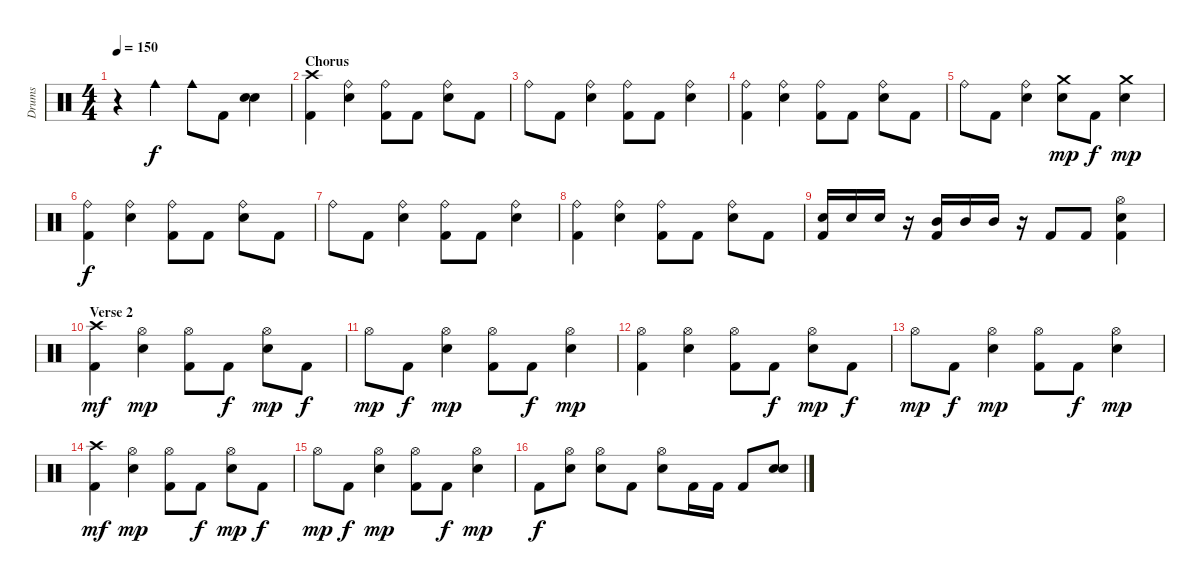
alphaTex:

\track ("Drums" "Drums") {instrument percussion}
\staff {score}
\articulation defaults
\ts (4 4)
\tempo 150
\clef neutral
\ks c
r.4{dy mf} "Cowbell medium (hit)".4{dy f} "Cowbell medium (hit)".8 "Kick (hit) 2".8 ("Snare (hit) 2" "Snare (hit) 2").4 |
\section ("" "Chorus")
("Crash high (hit)" "Kick (hit) 2").4 ("Ride (bell)" "Snare (hit) 2").4 ("Ride (bell)" "Kick (hit) 2").8 "Kick (hit) 2".8 ("Ride (bell)" "Snare (hit) 2").8 "Kick (hit) 2".8 |
"Ride (bell)".8 "Kick (hit) 2".8 ("Ride (bell)" "Snare (hit) 2").4 ("Ride (bell)" "Kick (hit) 2").8 "Kick (hit) 2".8 ("Ride (bell)" "Snare (hit) 2").4 |
("Ride (bell)" "Kick (hit) 2").4 ("Ride (bell)" "Snare (hit) 2").4 ("Ride (bell)" "Kick (hit) 2").8 "Kick (hit) 2".8 ("Ride (bell)" "Snare (hit) 2").8 "Kick (hit) 2".8 |
"Ride (bell)".8 "Kick (hit) 2".8 ("Ride (bell)" "Snare (hit) 2").4 ("Crash medium (hit)" "Snare (hit) 2").8{dy mp} "Kick (hit) 2".8{dy f} ("Crash medium (hit)" "Snare (hit) 2").4{dy mp} |
("Ride (bell)" "Kick (hit) 2").4{dy f} ("Ride (bell)" "Snare (hit) 2").4 ("Ride (bell)" "Kick (hit) 2").8 "Kick (hit) 2".8 ("Ride (bell)" "Snare (hit) 2").8 "Kick (hit) 2".8 |
"Ride (bell)".8 "Kick (hit) 2".8 ("Ride (bell)" "Snare (hit) 2").4 ("Ride (bell)" "Kick (hit) 2").8 "Kick (hit) 2".8 ("Ride (bell)" "Snare (hit) 2").4 |
("Ride (bell)" "Kick (hit) 2").4 ("Ride (bell)" "Snare (hit) 2").4 ("Ride (bell)" "Kick (hit) 2").8 "Kick (hit) 2".8 ("Ride (bell)" "Snare (hit) 2").8 "Kick (hit) 2".8 |
("Snare (hit) 2" "Kick (hit) 2").16 "Snare (hit) 2".16 "Snare (hit) 2".16 r.16 ("Mid Tom (hit)" "Kick (hit) 2").16 "Mid Tom (hit)".16 "Mid Tom (hit)".16 r.16 "Kick (hit) 2".8 "Kick (hit) 2".8 ("Hi-Hat (open)" "Snare (hit) 2" "Kick (hit) 2").4 |
\section ("" "Verse 2")
("Crash high (hit)" "Kick (hit) 2").4{dy mf} ("Hi-Hat (open)" "Snare (hit) 2").4{dy mp} ("Hi-Hat (open)" "Kick (hit) 2").8 "Kick (hit) 2".8{dy f} ("Hi-Hat (open)" "Snare (hit) 2").8{dy mp} "Kick (hit) 2".8{dy f} |
"Hi-Hat (open)".8{dy mp} "Kick (hit) 2".8{dy f} ("Hi-Hat (open)" "Snare (hit) 2").4{dy mp} ("Hi-Hat (open)" "Kick (hit) 2").8 "Kick (hit) 2".8{dy f} ("Hi-Hat (open)" "Snare (hit) 2").4{dy mp} |
("Hi-Hat (open)" "Kick (hit) 2").4 ("Hi-Hat (open)" "Snare (hit) 2").4 ("Hi-Hat (open)" "Kick (hit) 2").8 "Kick (hit) 2".8{dy f} ("Hi-Hat (open)" "Snare (hit) 2").8{dy mp} "Kick (hit) 2".8{dy f} |
"Hi-Hat (open)".8{dy mp} "Kick (hit) 2".8{dy f} ("Hi-Hat (open)" "Snare (hit) 2").4{dy mp} ("Hi-Hat (open)" "Kick (hit) 2").8 "Kick (hit) 2".8{dy f} ("Hi-Hat (open)" "Snare (hit) 2").4{dy mp} |
("Crash high (hit)" "Kick (hit) 2").4{dy mf} ("Hi-Hat (open)" "Snare (hit) 2").4{dy mp} ("Hi-Hat (open)" "Kick (hit) 2").8 "Kick (hit) 2".8{dy f} ("Hi-Hat (open)" "Snare (hit) 2").8{dy mp} "Kick (hit) 2".8{dy f} |
"Hi-Hat (open)".8{dy mp} "Kick (hit) 2".8{dy f} ("Hi-Hat (open)" "Snare (hit) 2").4{dy mp} ("Hi-Hat (open)" "Kick (hit) 2").8 "Kick (hit) 2".8{dy f} ("Hi-Hat (open)" "Snare (hit) 2").4{dy mp} |
"Kick (hit) 2".8{dy f} ("Hi-Hat (open)" "Snare (hit) 2").8 ("Hi-Hat (open)" "Snare (hit) 2").8 "Kick (hit) 2".8 ("Hi-Hat (open)" "Snare (hit) 2").8 "Kick (hit) 2".16 "Kick (hit) 2".16 "Kick (hit) 2".8 ("Snare (hit) 2" "Snare (hit) 2").8
